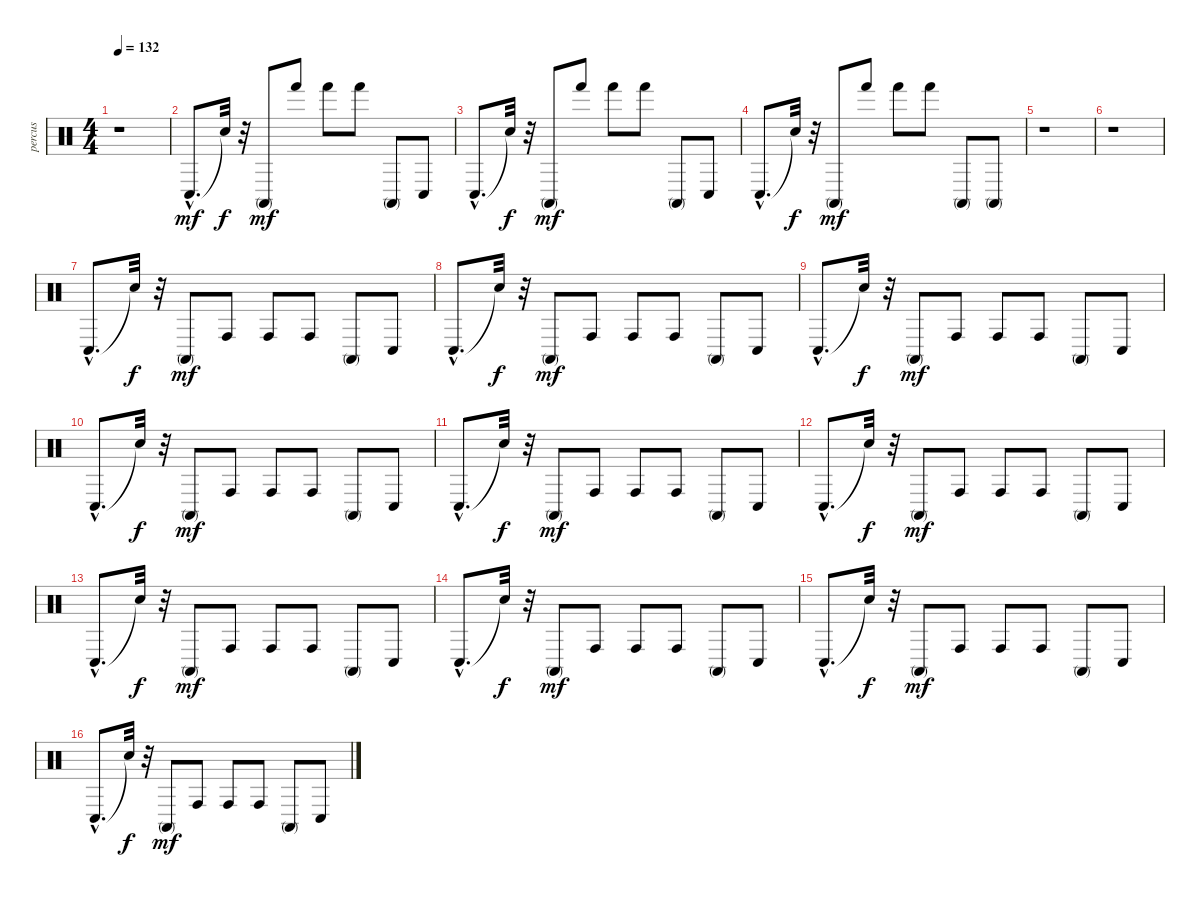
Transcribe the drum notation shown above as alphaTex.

\track ("percus" "percus") {instrument percussion}
\staff {score}
\articulation defaults
\ts (4 4)
\tempo 132
\clef neutral
\ks c
r.1{dy mf} |
"Conga low (hit)"{hac}.8{d} "Snare (hit)"{t}.32{dy f} r.32 "Conga high (mute)".8{dy mf} "Hand (hit)".8 "Hand (hit)".8 "Hand (hit)".8 "Conga high (mute)".8 "Conga low (hit)".8 |
"Conga low (hit)"{hac}.8{d} "Snare (hit)"{t}.32{dy f} r.32 "Conga high (mute)".8{dy mf} "Hand (hit)".8 "Hand (hit)".8 "Hand (hit)".8 "Conga high (mute)".8 "Conga low (hit)".8 |
"Conga low (hit)"{hac}.8{d} "Snare (hit)"{t}.32{dy f} r.32 "Conga high (mute)".8{dy mf} "Hand (hit)".8 "Hand (hit)".8 "Hand (hit)".8 "Conga high (mute)".8 "Conga high (mute)".8 |
r.1 |
r.1 |
"Conga low (hit)"{hac}.8{d} "Snare (hit)"{t}.32{dy f} r.32 "Conga high (mute)".8{dy mf} "Conga high (hit)".8 "Conga high (hit)".8 "Conga high (hit)".8 "Conga high (mute)".8 "Conga low (hit)".8 |
"Conga low (hit)"{hac}.8{d} "Snare (hit)"{t}.32{dy f} r.32 "Conga high (mute)".8{dy mf} "Conga high (hit)".8 "Conga high (hit)".8 "Conga high (hit)".8 "Conga high (mute)".8 "Conga low (hit)".8 |
"Conga low (hit)"{hac}.8{d} "Snare (hit)"{t}.32{dy f} r.32 "Conga high (mute)".8{dy mf} "Conga high (hit)".8 "Conga high (hit)".8 "Conga high (hit)".8 "Conga high (mute)".8 "Conga low (hit)".8 |
"Conga low (hit)"{hac}.8{d} "Snare (hit)"{t}.32{dy f} r.32 "Conga high (mute)".8{dy mf} "Conga high (hit)".8 "Conga high (hit)".8 "Conga high (hit)".8 "Conga high (mute)".8 "Conga low (hit)".8 |
"Conga low (hit)"{hac}.8{d} "Snare (hit)"{t}.32{dy f} r.32 "Conga high (mute)".8{dy mf} "Conga high (hit)".8 "Conga high (hit)".8 "Conga high (hit)".8 "Conga high (mute)".8 "Conga low (hit)".8 |
"Conga low (hit)"{hac}.8{d} "Snare (hit)"{t}.32{dy f} r.32 "Conga high (mute)".8{dy mf} "Conga high (hit)".8 "Conga high (hit)".8 "Conga high (hit)".8 "Conga high (mute)".8 "Conga low (hit)".8 |
"Conga low (hit)"{hac}.8{d} "Snare (hit)"{t}.32{dy f} r.32 "Conga high (mute)".8{dy mf} "Conga high (hit)".8 "Conga high (hit)".8 "Conga high (hit)".8 "Conga high (mute)".8 "Conga low (hit)".8 |
"Conga low (hit)"{hac}.8{d} "Snare (hit)"{t}.32{dy f} r.32 "Conga high (mute)".8{dy mf} "Conga high (hit)".8 "Conga high (hit)".8 "Conga high (hit)".8 "Conga high (mute)".8 "Conga low (hit)".8 |
"Conga low (hit)"{hac}.8{d} "Snare (hit)"{t}.32{dy f} r.32 "Conga high (mute)".8{dy mf} "Conga high (hit)".8 "Conga high (hit)".8 "Conga high (hit)".8 "Conga high (mute)".8 "Conga low (hit)".8 |
"Conga low (hit)"{hac}.8{d} "Snare (hit)"{t}.32{dy f} r.32 "Conga high (mute)".8{dy mf} "Conga high (hit)".8 "Conga high (hit)".8 "Conga high (hit)".8 "Conga high (mute)".8 "Conga low (hit)".8
